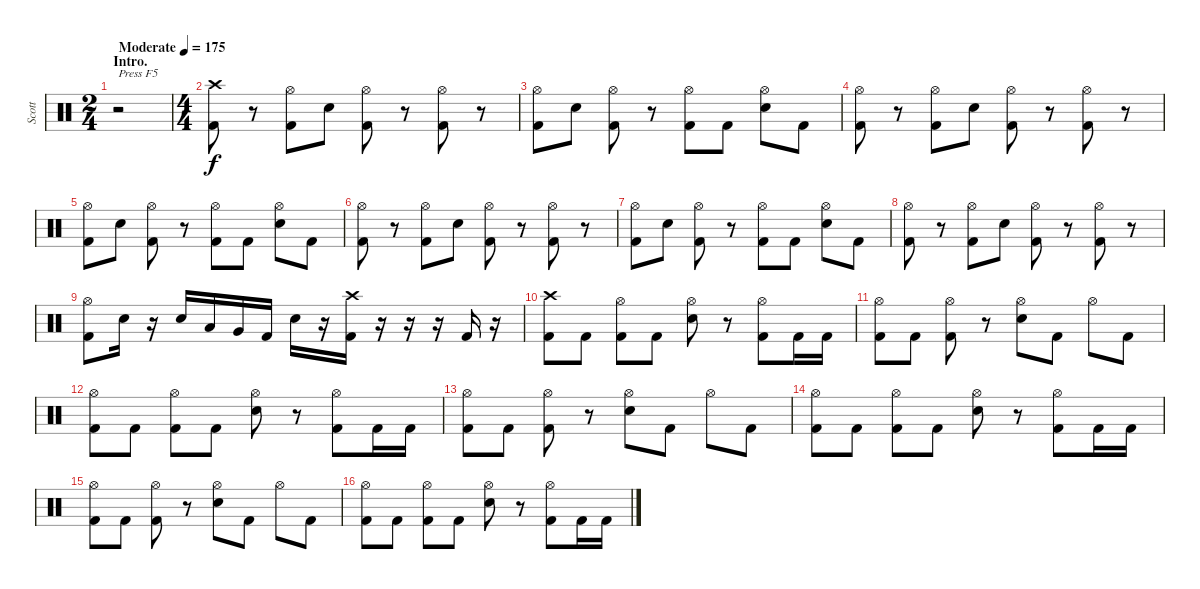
\track ("Scott" "Scott") {instrument percussion}
\staff {score}
\articulation defaults
\ts (2 4)
\section ("" "Intro.")
\tempo (175 "Moderate")
\clef neutral
\ks c
r.2{txt "Press F5" dy f} |
\ts (4 4)
("Crash high (hit)" "Kick (hit) 2").8 r.8 ("Hi-Hat (open)" "Kick (hit) 2").8 "Electric Snare (hit)".8 ("Hi-Hat (open)" "Kick (hit) 2").8 r.8 ("Hi-Hat (open)" "Kick (hit) 2").8 r.8 |
("Hi-Hat (open)" "Kick (hit) 2").8 "Electric Snare (hit)".8 ("Hi-Hat (open)" "Kick (hit) 2").8 r.8 ("Hi-Hat (open)" "Kick (hit) 2").8 "Kick (hit) 2".8 ("Hi-Hat (open)" "Electric Snare (hit)").8 "Kick (hit) 2".8 |
("Hi-Hat (open)" "Kick (hit) 2").8 r.8 ("Hi-Hat (open)" "Kick (hit) 2").8 "Electric Snare (hit)".8 ("Hi-Hat (open)" "Kick (hit) 2").8 r.8 ("Hi-Hat (open)" "Kick (hit) 2").8 r.8 |
("Hi-Hat (open)" "Kick (hit) 2").8 "Electric Snare (hit)".8 ("Hi-Hat (open)" "Kick (hit) 2").8 r.8 ("Hi-Hat (open)" "Kick (hit) 2").8 "Kick (hit) 2".8 ("Hi-Hat (open)" "Electric Snare (hit)").8 "Kick (hit) 2".8 |
("Hi-Hat (open)" "Kick (hit) 2").8 r.8 ("Hi-Hat (open)" "Kick (hit) 2").8 "Electric Snare (hit)".8 ("Hi-Hat (open)" "Kick (hit) 2").8 r.8 ("Hi-Hat (open)" "Kick (hit) 2").8 r.8 |
("Hi-Hat (open)" "Kick (hit) 2").8 "Electric Snare (hit)".8 ("Hi-Hat (open)" "Kick (hit) 2").8 r.8 ("Hi-Hat (open)" "Kick (hit) 2").8 "Kick (hit) 2".8 ("Hi-Hat (open)" "Electric Snare (hit)").8 "Kick (hit) 2".8 |
("Hi-Hat (open)" "Kick (hit) 2").8 r.8 ("Hi-Hat (open)" "Kick (hit) 2").8 "Electric Snare (hit)".8 ("Hi-Hat (open)" "Kick (hit) 2").8 r.8 ("Hi-Hat (open)" "Kick (hit) 2").8 r.8 |
("Hi-Hat (open)" "Kick (hit) 2").8 "Electric Snare (hit)".16 r.16 "Electric Snare (hit)".16 "Low Tom (hit)".16 "Very Low Tom (hit)".16 "Kick (hit) 2".16 "Electric Snare (hit)".16 r.16 ("Crash high (hit)" "Kick (hit) 2").16 r.16 r.16 r.16 "Kick (hit) 2".16 r.16 |
("Crash high (hit)" "Kick (hit) 2").8 "Kick (hit) 2".8 ("Hi-Hat (open)" "Kick (hit) 2").8 "Kick (hit) 2".8 ("Hi-Hat (open)" "Electric Snare (hit)").8 r.8 ("Hi-Hat (open)" "Kick (hit) 2").8 "Kick (hit) 2".16 "Kick (hit) 2".16 |
("Hi-Hat (open)" "Kick (hit) 2").8 "Kick (hit) 2".8 ("Hi-Hat (open)" "Kick (hit) 2").8 r.8 ("Hi-Hat (open)" "Electric Snare (hit)").8 "Kick (hit) 2".8 "Hi-Hat (open)".8 "Kick (hit) 2".8 |
("Hi-Hat (open)" "Kick (hit) 2").8 "Kick (hit) 2".8 ("Hi-Hat (open)" "Kick (hit) 2").8 "Kick (hit) 2".8 ("Hi-Hat (open)" "Electric Snare (hit)").8 r.8 ("Hi-Hat (open)" "Kick (hit) 2").8 "Kick (hit) 2".16 "Kick (hit) 2".16 |
("Hi-Hat (open)" "Kick (hit) 2").8 "Kick (hit) 2".8 ("Hi-Hat (open)" "Kick (hit) 2").8 r.8 ("Hi-Hat (open)" "Electric Snare (hit)").8 "Kick (hit) 2".8 "Hi-Hat (open)".8 "Kick (hit) 2".8 |
("Hi-Hat (open)" "Kick (hit) 2").8 "Kick (hit) 2".8 ("Hi-Hat (open)" "Kick (hit) 2").8 "Kick (hit) 2".8 ("Hi-Hat (open)" "Electric Snare (hit)").8 r.8 ("Hi-Hat (open)" "Kick (hit) 2").8 "Kick (hit) 2".16 "Kick (hit) 2".16 |
("Hi-Hat (open)" "Kick (hit) 2").8 "Kick (hit) 2".8 ("Hi-Hat (open)" "Kick (hit) 2").8 r.8 ("Hi-Hat (open)" "Electric Snare (hit)").8 "Kick (hit) 2".8 "Hi-Hat (open)".8 "Kick (hit) 2".8 |
("Hi-Hat (open)" "Kick (hit) 2").8 "Kick (hit) 2".8 ("Hi-Hat (open)" "Kick (hit) 2").8 "Kick (hit) 2".8 ("Hi-Hat (open)" "Electric Snare (hit)").8 r.8 ("Hi-Hat (open)" "Kick (hit) 2").8 "Kick (hit) 2".16 "Kick (hit) 2".16
